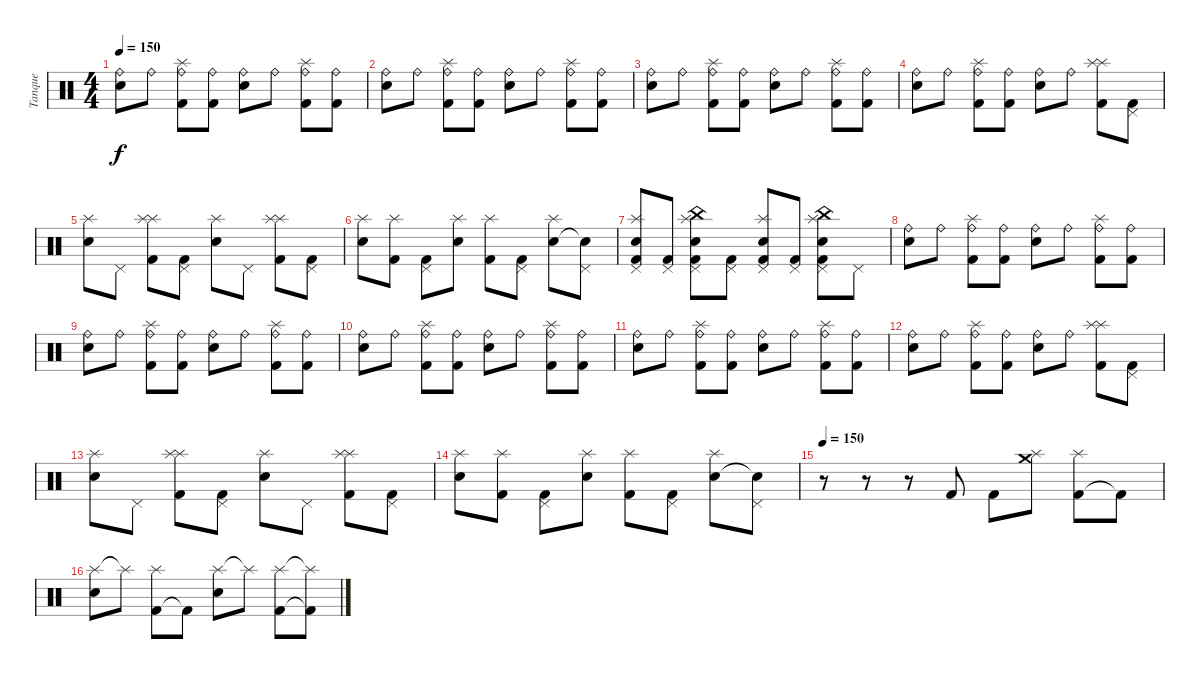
\track ("Tanque" "Tanque") {instrument percussion}
\staff {score}
\articulation defaults
\ts (4 4)
\tempo 150
\clef neutral
\ks c
("Ride (bell)" "Snare (hit) 2").8{dy f} "Ride (bell)".8 ("Ride (bell)" "Kick (hit) 2" "Splash (hit)").8 ("Ride (bell)" "Kick (hit) 2").8 ("Ride (bell)" "Snare (hit) 2").8 "Ride (bell)".8 ("Ride (bell)" "Kick (hit) 2" "Splash (hit)").8 ("Ride (bell)" "Kick (hit) 2").8 |
("Ride (bell)" "Snare (hit) 2").8 "Ride (bell)".8 ("Ride (bell)" "Kick (hit) 2" "Splash (hit)").8 ("Ride (bell)" "Kick (hit) 2").8 ("Ride (bell)" "Snare (hit) 2").8 "Ride (bell)".8 ("Ride (bell)" "Kick (hit) 2" "Splash (hit)").8 ("Ride (bell)" "Kick (hit) 2").8 |
("Ride (bell)" "Snare (hit) 2").8 "Ride (bell)".8 ("Ride (bell)" "Kick (hit) 2" "Splash (hit)").8 ("Ride (bell)" "Kick (hit) 2").8 ("Ride (bell)" "Snare (hit) 2").8 "Ride (bell)".8 ("Ride (bell)" "Kick (hit) 2" "Splash (hit)").8 ("Ride (bell)" "Kick (hit) 2").8 |
("Ride (bell)" "Snare (hit) 2").8 "Ride (bell)".8 ("Ride (bell)" "Kick (hit) 2" "Splash (hit)").8 ("Ride (bell)" "Kick (hit) 2").8 ("Ride (bell)" "Snare (hit) 2").8 "Ride (bell)".8 ("Splash (hit)" "Kick (hit) 2" "Splash (hit)").8 ("Pedal Hi-Hat (hit)" "Kick (hit) 2").8 |
("Splash (hit)" "Snare (hit) 2").8 "Pedal Hi-Hat (hit)".8 ("Splash (hit)" "Kick (hit) 2" "Splash (hit)").8 ("Pedal Hi-Hat (hit)" "Kick (hit) 2").8 ("Splash (hit)" "Snare (hit) 2").8 "Pedal Hi-Hat (hit)".8 ("Splash (hit)" "Kick (hit) 2" "Splash (hit)").8 ("Pedal Hi-Hat (hit)" "Kick (hit) 2").8 |
("Splash (hit)" "Snare (hit) 2").8 ("Splash (hit)" "Kick (hit) 2").8 ("Pedal Hi-Hat (hit)" "Kick (hit) 2").8 ("Splash (hit)" "Snare (hit) 2").8 ("Splash (hit)" "Kick (hit) 2").8 ("Pedal Hi-Hat (hit)" "Kick (hit) 2").8 ("Splash (hit)" "Snare (hit) 2").8 ("Pedal Hi-Hat (hit)" "Snare (hit) 2"{t}).8 |
("Pedal Hi-Hat (hit)" "Kick (hit) 2" "Snare (hit) 2" "Splash (hit)").8 ("Pedal Hi-Hat (hit)" "Kick (hit) 2").8 ("Pedal Hi-Hat (hit)" "Kick (hit) 2" "Snare (hit) 2" "Splash (hit)" "China (hit)").8 ("Pedal Hi-Hat (hit)" "Kick (hit) 2").8 ("Pedal Hi-Hat (hit)" "Kick (hit) 2" "Snare (hit) 2" "Splash (hit)").8 ("Pedal Hi-Hat (hit)" "Kick (hit) 2").8 ("Pedal Hi-Hat (hit)" "Kick (hit) 2" "Snare (hit) 2" "Splash (hit)" "China (hit)").8 "Pedal Hi-Hat (hit)".8 |
("Ride (bell)" "Snare (hit) 2").8 "Ride (bell)".8 ("Ride (bell)" "Kick (hit) 2" "Splash (hit)").8 ("Ride (bell)" "Kick (hit) 2").8 ("Ride (bell)" "Snare (hit) 2").8 "Ride (bell)".8 ("Ride (bell)" "Kick (hit) 2" "Splash (hit)").8 ("Ride (bell)" "Kick (hit) 2").8 |
("Ride (bell)" "Snare (hit) 2").8 "Ride (bell)".8 ("Ride (bell)" "Kick (hit) 2" "Splash (hit)").8 ("Ride (bell)" "Kick (hit) 2").8 ("Ride (bell)" "Snare (hit) 2").8 "Ride (bell)".8 ("Ride (bell)" "Kick (hit) 2" "Splash (hit)").8 ("Ride (bell)" "Kick (hit) 2").8 |
("Ride (bell)" "Snare (hit) 2").8 "Ride (bell)".8 ("Ride (bell)" "Kick (hit) 2" "Splash (hit)").8 ("Ride (bell)" "Kick (hit) 2").8 ("Ride (bell)" "Snare (hit) 2").8 "Ride (bell)".8 ("Ride (bell)" "Kick (hit) 2" "Splash (hit)").8 ("Ride (bell)" "Kick (hit) 2").8 |
("Ride (bell)" "Snare (hit) 2").8 "Ride (bell)".8 ("Ride (bell)" "Kick (hit) 2" "Splash (hit)").8 ("Ride (bell)" "Kick (hit) 2").8 ("Ride (bell)" "Snare (hit) 2").8 "Ride (bell)".8 ("Ride (bell)" "Kick (hit) 2" "Splash (hit)").8 ("Ride (bell)" "Kick (hit) 2").8 |
("Ride (bell)" "Snare (hit) 2").8 "Ride (bell)".8 ("Ride (bell)" "Kick (hit) 2" "Splash (hit)").8 ("Ride (bell)" "Kick (hit) 2").8 ("Ride (bell)" "Snare (hit) 2").8 "Ride (bell)".8 ("Splash (hit)" "Kick (hit) 2" "Splash (hit)").8 ("Pedal Hi-Hat (hit)" "Kick (hit) 2").8 |
("Splash (hit)" "Snare (hit) 2").8 "Pedal Hi-Hat (hit)".8 ("Splash (hit)" "Kick (hit) 2" "Splash (hit)").8 ("Pedal Hi-Hat (hit)" "Kick (hit) 2").8 ("Splash (hit)" "Snare (hit) 2").8 "Pedal Hi-Hat (hit)".8 ("Splash (hit)" "Kick (hit) 2" "Splash (hit)").8 ("Pedal Hi-Hat (hit)" "Kick (hit) 2").8 |
("Splash (hit)" "Snare (hit) 2").8 ("Splash (hit)" "Kick (hit) 2").8 ("Pedal Hi-Hat (hit)" "Kick (hit) 2").8 ("Splash (hit)" "Snare (hit) 2").8 ("Splash (hit)" "Kick (hit) 2").8 ("Pedal Hi-Hat (hit)" "Kick (hit) 2").8 ("Splash (hit)" "Snare (hit) 2").8 ("Pedal Hi-Hat (hit)" "Snare (hit) 2"{t}).8 |
\tempo 150
r.8 r.8 r.8 "Kick (hit) 2".8 "Kick (hit) 2".8 ("Splash (hit)" "Crash medium (hit)").8 ("Kick (hit) 2" "Splash (hit)").8 "Kick (hit) 2"{t}.8 |
("Splash (hit)" "Snare (hit) 2").8 "Splash (hit)"{t}.8 ("Kick (hit) 2" "Splash (hit)").8 "Kick (hit) 2"{t}.8 ("Splash (hit)" "Snare (hit) 2").8 "Splash (hit)"{t}.8 ("Kick (hit) 2" "Splash (hit)").8 ("Kick (hit) 2"{t} "Splash (hit)"{t}).8
